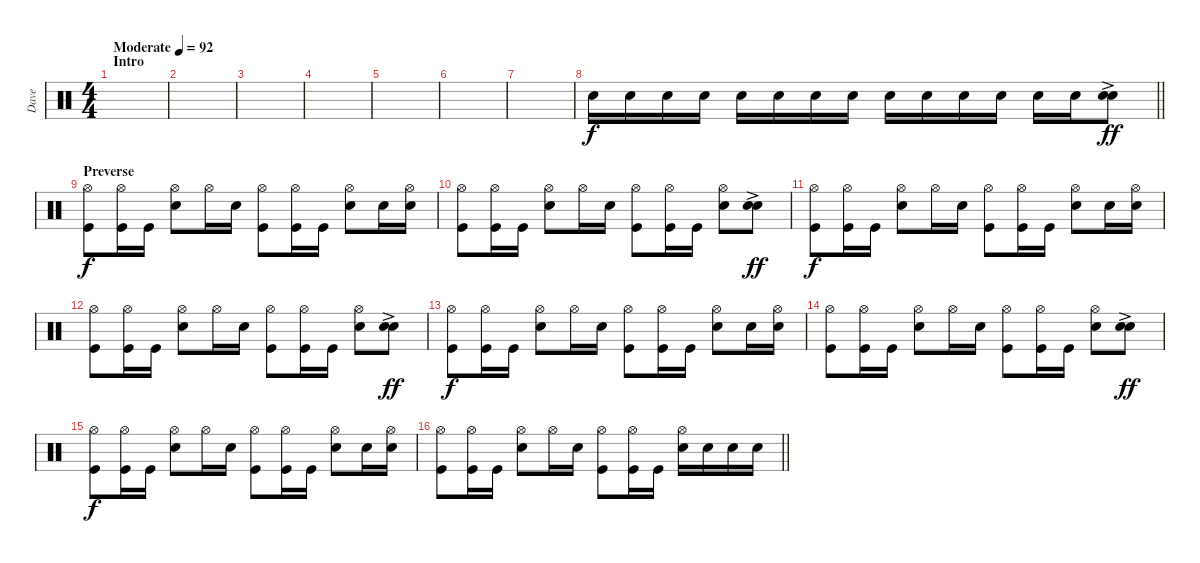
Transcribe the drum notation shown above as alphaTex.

\track ("Dave" "Dave") {instrument percussion}
\staff {score}
\articulation defaults
\ts (4 4)
\section ("" "Intro")
\tempo (92 "Moderate")
\clef neutral
\ks c
|
|
|
|
|
|
|
\barLineRight lightlight "Electric Snare (hit)".16{volume 13} "Electric Snare (hit)".16 "Electric Snare (hit)".16 "Electric Snare (hit)".16 "Electric Snare (hit)".16 "Electric Snare (hit)".16 "Electric Snare (hit)".16 "Electric Snare (hit)".16 "Electric Snare (hit)".16 "Electric Snare (hit)".16 "Electric Snare (hit)".16 "Electric Snare (hit)".16 "Electric Snare (hit)".16 "Electric Snare (hit)".16
("Electric Snare (hit)"{ac} "Electric Snare (hit)"{ac}).8{dy ff} |
\section ("" "Preverse")
("Hi-Hat (open)" "Kick (hit)").8{dy f} ("Hi-Hat (open)" "Kick (hit)").16 "Kick (hit)".16 ("Hi-Hat (open)" "Electric Snare (hit)").8 "Hi-Hat (open)".16 "Electric Snare (hit)".16 ("Hi-Hat (open)" "Kick (hit)").8 ("Hi-Hat (open)" "Kick (hit)").16 "Kick (hit)".16 ("Hi-Hat (open)" "Electric Snare (hit)").8 "Electric Snare (hit)".16 ("Hi-Hat (open)" "Electric Snare (hit)").16 |
("Hi-Hat (open)" "Kick (hit)").8 ("Hi-Hat (open)" "Kick (hit)").16 "Kick (hit)".16 ("Hi-Hat (open)" "Electric Snare (hit)").8 "Hi-Hat (open)".16 "Electric Snare (hit)".16 ("Hi-Hat (open)" "Kick (hit)").8 ("Hi-Hat (open)" "Kick (hit)").16 "Kick (hit)".16 ("Hi-Hat (open)" "Electric Snare (hit)").8 ("Electric Snare (hit)"{ac} "Electric Snare (hit)"{ac}).8{dy ff} |
("Hi-Hat (open)" "Kick (hit)").8{dy f} ("Hi-Hat (open)" "Kick (hit)").16 "Kick (hit)".16 ("Hi-Hat (open)" "Electric Snare (hit)").8 "Hi-Hat (open)".16 "Electric Snare (hit)".16 ("Hi-Hat (open)" "Kick (hit)").8 ("Hi-Hat (open)" "Kick (hit)").16 "Kick (hit)".16 ("Hi-Hat (open)" "Electric Snare (hit)").8 "Electric Snare (hit)".16 ("Hi-Hat (open)" "Electric Snare (hit)").16 |
("Hi-Hat (open)" "Kick (hit)").8 ("Hi-Hat (open)" "Kick (hit)").16 "Kick (hit)".16 ("Hi-Hat (open)" "Electric Snare (hit)").8 "Hi-Hat (open)".16 "Electric Snare (hit)".16 ("Hi-Hat (open)" "Kick (hit)").8 ("Hi-Hat (open)" "Kick (hit)").16 "Kick (hit)".16 ("Hi-Hat (open)" "Electric Snare (hit)").8 ("Electric Snare (hit)"{ac} "Electric Snare (hit)"{ac}).8{dy ff} |
("Hi-Hat (open)" "Kick (hit)").8{dy f} ("Hi-Hat (open)" "Kick (hit)").16 "Kick (hit)".16 ("Hi-Hat (open)" "Electric Snare (hit)").8 "Hi-Hat (open)".16 "Electric Snare (hit)".16 ("Hi-Hat (open)" "Kick (hit)").8 ("Hi-Hat (open)" "Kick (hit)").16 "Kick (hit)".16 ("Hi-Hat (open)" "Electric Snare (hit)").8 "Electric Snare (hit)".16 ("Hi-Hat (open)" "Electric Snare (hit)").16 |
("Hi-Hat (open)" "Kick (hit)").8 ("Hi-Hat (open)" "Kick (hit)").16 "Kick (hit)".16 ("Hi-Hat (open)" "Electric Snare (hit)").8 "Hi-Hat (open)".16 "Electric Snare (hit)".16 ("Hi-Hat (open)" "Kick (hit)").8 ("Hi-Hat (open)" "Kick (hit)").16 "Kick (hit)".16 ("Hi-Hat (open)" "Electric Snare (hit)").8 ("Electric Snare (hit)"{ac} "Electric Snare (hit)"{ac}).8{dy ff} |
("Hi-Hat (open)" "Kick (hit)").8{dy f} ("Hi-Hat (open)" "Kick (hit)").16 "Kick (hit)".16 ("Hi-Hat (open)" "Electric Snare (hit)").8 "Hi-Hat (open)".16 "Electric Snare (hit)".16 ("Hi-Hat (open)" "Kick (hit)").8 ("Hi-Hat (open)" "Kick (hit)").16 "Kick (hit)".16 ("Hi-Hat (open)" "Electric Snare (hit)").8 "Electric Snare (hit)".16 ("Hi-Hat (open)" "Electric Snare (hit)").16 |
\barLineRight lightlight
("Hi-Hat (open)" "Kick (hit)").8 ("Hi-Hat (open)" "Kick (hit)").16 "Kick (hit)".16 ("Hi-Hat (open)" "Electric Snare (hit)").8 "Hi-Hat (open)".16 "Electric Snare (hit)".16 ("Hi-Hat (open)" "Kick (hit)").8 ("Hi-Hat (open)" "Kick (hit)").16 "Kick (hit)".16 ("Hi-Hat (open)" "Electric Snare (hit)").16 "Electric Snare (hit)".16 "Electric Snare (hit)".16 "Electric Snare (hit)".16
